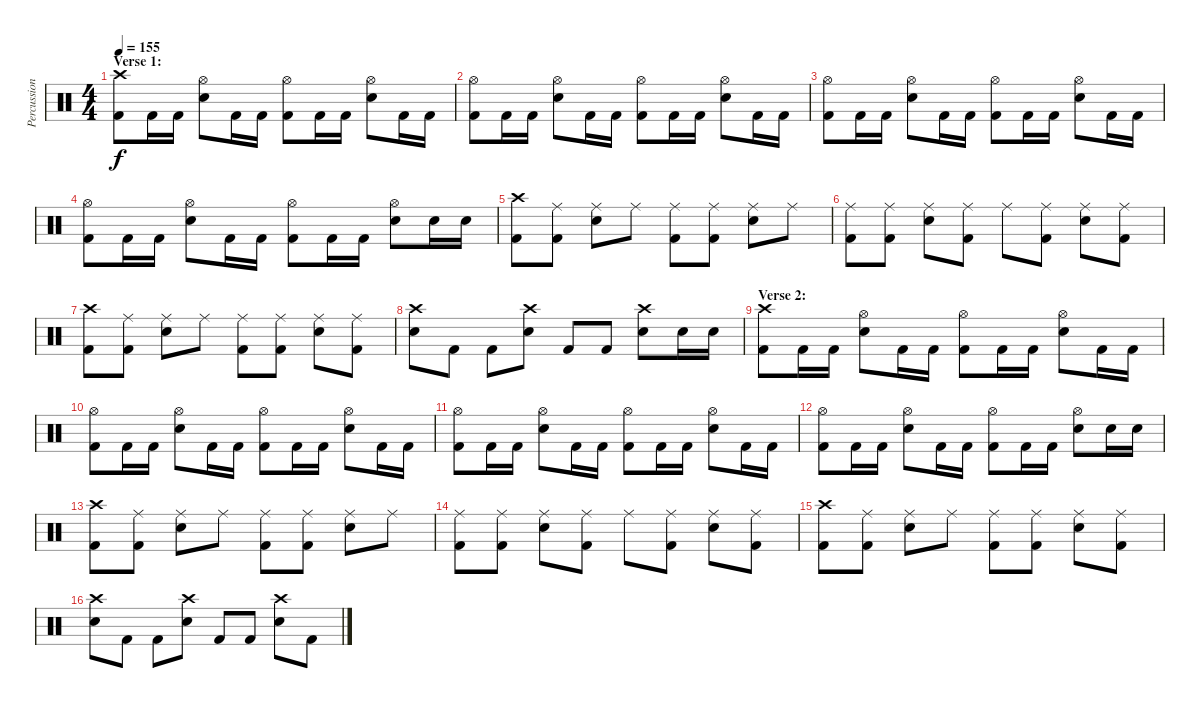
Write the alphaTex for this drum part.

\track ("Percussion" "Percussion") {instrument percussion}
\staff {score}
\articulation defaults
\ts (4 4)
\section ("" "Verse 1:")
\tempo 155
\clef neutral
\ks c
("Crash high (hit)" "Kick (hit) 2").8{dy f} "Kick (hit) 2".16 "Kick (hit) 2".16 ("Hi-Hat (open)" "Electric Snare (hit)").8 "Kick (hit) 2".16 "Kick (hit) 2".16 ("Hi-Hat (open)" "Kick (hit) 2").8 "Kick (hit) 2".16 "Kick (hit) 2".16 ("Hi-Hat (open)" "Electric Snare (hit)").8 "Kick (hit) 2".16 "Kick (hit) 2".16 |
("Hi-Hat (open)" "Kick (hit) 2").8 "Kick (hit) 2".16 "Kick (hit) 2".16 ("Hi-Hat (open)" "Electric Snare (hit)").8 "Kick (hit) 2".16 "Kick (hit) 2".16 ("Hi-Hat (open)" "Kick (hit) 2").8 "Kick (hit) 2".16 "Kick (hit) 2".16 ("Hi-Hat (open)" "Electric Snare (hit)").8 "Kick (hit) 2".16 "Kick (hit) 2".16 |
("Hi-Hat (open)" "Kick (hit) 2").8 "Kick (hit) 2".16 "Kick (hit) 2".16 ("Hi-Hat (open)" "Electric Snare (hit)").8 "Kick (hit) 2".16 "Kick (hit) 2".16 ("Hi-Hat (open)" "Kick (hit) 2").8 "Kick (hit) 2".16 "Kick (hit) 2".16 ("Hi-Hat (open)" "Electric Snare (hit)").8 "Kick (hit) 2".16 "Kick (hit) 2".16 |
("Hi-Hat (open)" "Kick (hit) 2").8 "Kick (hit) 2".16 "Kick (hit) 2".16 ("Hi-Hat (open)" "Electric Snare (hit)").8 "Kick (hit) 2".16 "Kick (hit) 2".16 ("Hi-Hat (open)" "Kick (hit) 2").8 "Kick (hit) 2".16 "Kick (hit) 2".16 ("Hi-Hat (open)" "Electric Snare (hit)").8 "Electric Snare (hit)".16 "Electric Snare (hit)".16 |
("Crash high (hit)" "Kick (hit) 2").8 ("Ride (middle)" "Kick (hit) 2").8 ("Ride (middle)" "Electric Snare (hit)").8 "Ride (middle)".8 ("Ride (middle)" "Kick (hit) 2").8 ("Ride (middle)" "Kick (hit) 2").8 ("Ride (middle)" "Electric Snare (hit)").8 "Ride (middle)".8 |
("Ride (middle)" "Kick (hit) 2").8 ("Ride (middle)" "Kick (hit) 2").8 ("Ride (middle)" "Electric Snare (hit)").8 ("Ride (middle)" "Kick (hit) 2").8 "Ride (middle)".8 ("Ride (middle)" "Kick (hit) 2").8 ("Ride (middle)" "Electric Snare (hit)").8 ("Ride (middle)" "Kick (hit) 2").8 |
("Crash high (hit)" "Kick (hit) 2").8 ("Ride (middle)" "Kick (hit) 2").8 ("Ride (middle)" "Electric Snare (hit)").8 "Ride (middle)".8 ("Ride (middle)" "Kick (hit) 2").8 ("Ride (middle)" "Kick (hit) 2").8 ("Ride (middle)" "Electric Snare (hit)").8 ("Ride (middle)" "Kick (hit) 2").8 |
("Crash high (hit)" "Electric Snare (hit)").8 "Kick (hit) 2".8 "Kick (hit) 2".8 ("Crash high (hit)" "Electric Snare (hit)").8 "Kick (hit) 2".8 "Kick (hit) 2".8 ("Crash high (hit)" "Electric Snare (hit)").8 "Electric Snare (hit)".16 "Electric Snare (hit)".16 |
\section ("" "Verse 2:")
("Crash high (hit)" "Kick (hit) 2").8 "Kick (hit) 2".16 "Kick (hit) 2".16 ("Hi-Hat (open)" "Electric Snare (hit)").8 "Kick (hit) 2".16 "Kick (hit) 2".16 ("Hi-Hat (open)" "Kick (hit) 2").8 "Kick (hit) 2".16 "Kick (hit) 2".16 ("Hi-Hat (open)" "Electric Snare (hit)").8 "Kick (hit) 2".16 "Kick (hit) 2".16 |
("Hi-Hat (open)" "Kick (hit) 2").8 "Kick (hit) 2".16 "Kick (hit) 2".16 ("Hi-Hat (open)" "Electric Snare (hit)").8 "Kick (hit) 2".16 "Kick (hit) 2".16 ("Hi-Hat (open)" "Kick (hit) 2").8 "Kick (hit) 2".16 "Kick (hit) 2".16 ("Hi-Hat (open)" "Electric Snare (hit)").8 "Kick (hit) 2".16 "Kick (hit) 2".16 |
("Hi-Hat (open)" "Kick (hit) 2").8 "Kick (hit) 2".16 "Kick (hit) 2".16 ("Hi-Hat (open)" "Electric Snare (hit)").8 "Kick (hit) 2".16 "Kick (hit) 2".16 ("Hi-Hat (open)" "Kick (hit) 2").8 "Kick (hit) 2".16 "Kick (hit) 2".16 ("Hi-Hat (open)" "Electric Snare (hit)").8 "Kick (hit) 2".16 "Kick (hit) 2".16 |
("Hi-Hat (open)" "Kick (hit) 2").8 "Kick (hit) 2".16 "Kick (hit) 2".16 ("Hi-Hat (open)" "Electric Snare (hit)").8 "Kick (hit) 2".16 "Kick (hit) 2".16 ("Hi-Hat (open)" "Kick (hit) 2").8 "Kick (hit) 2".16 "Kick (hit) 2".16 ("Hi-Hat (open)" "Electric Snare (hit)").8 "Electric Snare (hit)".16 "Electric Snare (hit)".16 |
("Crash high (hit)" "Kick (hit) 2").8 ("Ride (middle)" "Kick (hit) 2").8 ("Ride (middle)" "Electric Snare (hit)").8 "Ride (middle)".8 ("Ride (middle)" "Kick (hit) 2").8 ("Ride (middle)" "Kick (hit) 2").8 ("Ride (middle)" "Electric Snare (hit)").8 "Ride (middle)".8 |
("Ride (middle)" "Kick (hit) 2").8 ("Ride (middle)" "Kick (hit) 2").8 ("Ride (middle)" "Electric Snare (hit)").8 ("Ride (middle)" "Kick (hit) 2").8 "Ride (middle)".8 ("Ride (middle)" "Kick (hit) 2").8 ("Ride (middle)" "Electric Snare (hit)").8 ("Ride (middle)" "Kick (hit) 2").8 |
("Crash high (hit)" "Kick (hit) 2").8 ("Ride (middle)" "Kick (hit) 2").8 ("Ride (middle)" "Electric Snare (hit)").8 "Ride (middle)".8 ("Ride (middle)" "Kick (hit) 2").8 ("Ride (middle)" "Kick (hit) 2").8 ("Ride (middle)" "Electric Snare (hit)").8 ("Ride (middle)" "Kick (hit) 2").8 |
("Crash high (hit)" "Electric Snare (hit)").8 "Kick (hit) 2".8 "Kick (hit) 2".8 ("Crash high (hit)" "Electric Snare (hit)").8 "Kick (hit) 2".8 "Kick (hit) 2".8 ("Crash high (hit)" "Electric Snare (hit)").8 "Kick (hit) 2".8
